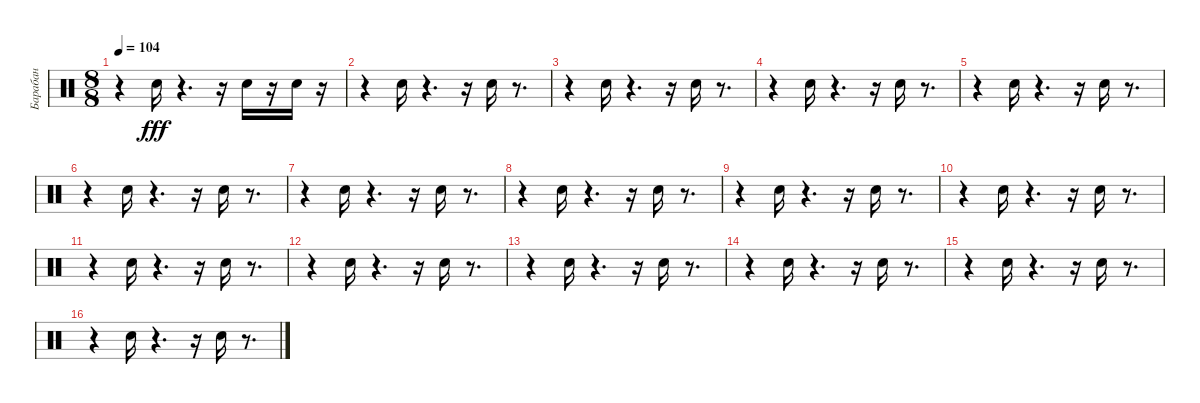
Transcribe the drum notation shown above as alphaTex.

\track ("Барабан" "Барабан") {instrument percussion}
\staff {score}
\articulation defaults
\ts (8 8)
\tempo 104
\clef neutral
\ks c
r.4{dy fff} "Snare (hit) 2".16 r.4{d} r.16 "Snare (hit) 2".16 r.16 "Snare (hit) 2".16 r.16 |
r.4 "Snare (hit) 2".16 r.4{d} r.16 "Snare (hit) 2".16 r.8{d} |
r.4 "Snare (hit) 2".16 r.4{d} r.16 "Snare (hit) 2".16 r.8{d} |
r.4 "Snare (hit) 2".16 r.4{d} r.16 "Snare (hit) 2".16 r.8{d} |
r.4 "Snare (hit) 2".16 r.4{d} r.16 "Snare (hit) 2".16 r.8{d} |
r.4 "Snare (hit) 2".16 r.4{d} r.16 "Snare (hit) 2".16 r.8{d} |
r.4 "Snare (hit) 2".16 r.4{d} r.16 "Snare (hit) 2".16 r.8{d} |
r.4 "Snare (hit) 2".16 r.4{d} r.16 "Snare (hit) 2".16 r.8{d} |
r.4 "Snare (hit) 2".16 r.4{d} r.16 "Snare (hit) 2".16 r.8{d} |
r.4 "Snare (hit) 2".16 r.4{d} r.16 "Snare (hit) 2".16 r.8{d} |
r.4 "Snare (hit) 2".16 r.4{d} r.16 "Snare (hit) 2".16 r.8{d} |
r.4 "Snare (hit) 2".16 r.4{d} r.16 "Snare (hit) 2".16 r.8{d} |
r.4 "Snare (hit) 2".16 r.4{d} r.16 "Snare (hit) 2".16 r.8{d} |
r.4 "Snare (hit) 2".16 r.4{d} r.16 "Snare (hit) 2".16 r.8{d} |
r.4 "Snare (hit) 2".16 r.4{d} r.16 "Snare (hit) 2".16 r.8{d} |
r.4 "Snare (hit) 2".16 r.4{d} r.16 "Snare (hit) 2".16 r.8{d}
